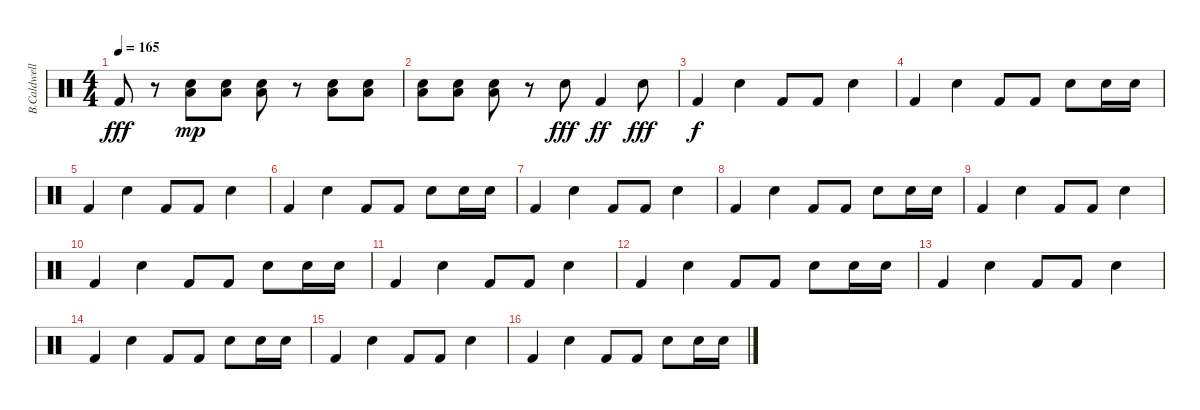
\track ("B.Caldwell" "B.Caldwell") {instrument percussion}
\staff {score}
\articulation defaults
\ts (4 4)
\tempo 165
\clef neutral
\ks c "Kick (hit) 2".8{dy fff}
r.8 ("Low Floor Tom (hit)" "Snare (hit) 2").8{dy mp} ("Low Floor Tom (hit)" "Snare (hit) 2").8 ("Low Floor Tom (hit)" "Snare (hit) 2").8 r.8 ("Low Floor Tom (hit)" "Snare (hit) 2").8 ("Low Floor Tom (hit)" "Snare (hit) 2").8 |
("Low Floor Tom (hit)" "Snare (hit) 2").8 ("Low Floor Tom (hit)" "Snare (hit) 2").8 ("Low Floor Tom (hit)" "Snare (hit) 2").8 r.8 "Snare (hit) 2".8{dy fff} "Kick (hit) 2".4{dy ff} "Snare (hit) 2".8{dy fff} |
"Kick (hit) 2".4{dy f} "Snare (hit) 2".4 "Kick (hit) 2".8 "Kick (hit) 2".8 "Snare (hit) 2".4 |
"Kick (hit) 2".4 "Snare (hit) 2".4 "Kick (hit) 2".8 "Kick (hit) 2".8 "Snare (hit) 2".8 "Snare (hit) 2".16 "Snare (hit) 2".16 |
"Kick (hit) 2".4 "Snare (hit) 2".4 "Kick (hit) 2".8 "Kick (hit) 2".8 "Snare (hit) 2".4 |
"Kick (hit) 2".4 "Snare (hit) 2".4 "Kick (hit) 2".8 "Kick (hit) 2".8 "Snare (hit) 2".8 "Snare (hit) 2".16 "Snare (hit) 2".16 |
"Kick (hit) 2".4 "Snare (hit) 2".4 "Kick (hit) 2".8 "Kick (hit) 2".8 "Snare (hit) 2".4 |
"Kick (hit) 2".4 "Snare (hit) 2".4 "Kick (hit) 2".8 "Kick (hit) 2".8 "Snare (hit) 2".8 "Snare (hit) 2".16 "Snare (hit) 2".16 |
"Kick (hit) 2".4 "Snare (hit) 2".4 "Kick (hit) 2".8 "Kick (hit) 2".8 "Snare (hit) 2".4 |
"Kick (hit) 2".4 "Snare (hit) 2".4 "Kick (hit) 2".8 "Kick (hit) 2".8 "Snare (hit) 2".8 "Snare (hit) 2".16 "Snare (hit) 2".16 |
"Kick (hit) 2".4 "Snare (hit) 2".4 "Kick (hit) 2".8 "Kick (hit) 2".8 "Snare (hit) 2".4 |
"Kick (hit) 2".4 "Snare (hit) 2".4 "Kick (hit) 2".8 "Kick (hit) 2".8 "Snare (hit) 2".8 "Snare (hit) 2".16 "Snare (hit) 2".16 |
"Kick (hit) 2".4 "Snare (hit) 2".4 "Kick (hit) 2".8 "Kick (hit) 2".8 "Snare (hit) 2".4 |
"Kick (hit) 2".4 "Snare (hit) 2".4 "Kick (hit) 2".8 "Kick (hit) 2".8 "Snare (hit) 2".8 "Snare (hit) 2".16 "Snare (hit) 2".16 |
"Kick (hit) 2".4 "Snare (hit) 2".4 "Kick (hit) 2".8 "Kick (hit) 2".8 "Snare (hit) 2".4 |
"Kick (hit) 2".4 "Snare (hit) 2".4 "Kick (hit) 2".8 "Kick (hit) 2".8 "Snare (hit) 2".8 "Snare (hit) 2".16 "Snare (hit) 2".16
